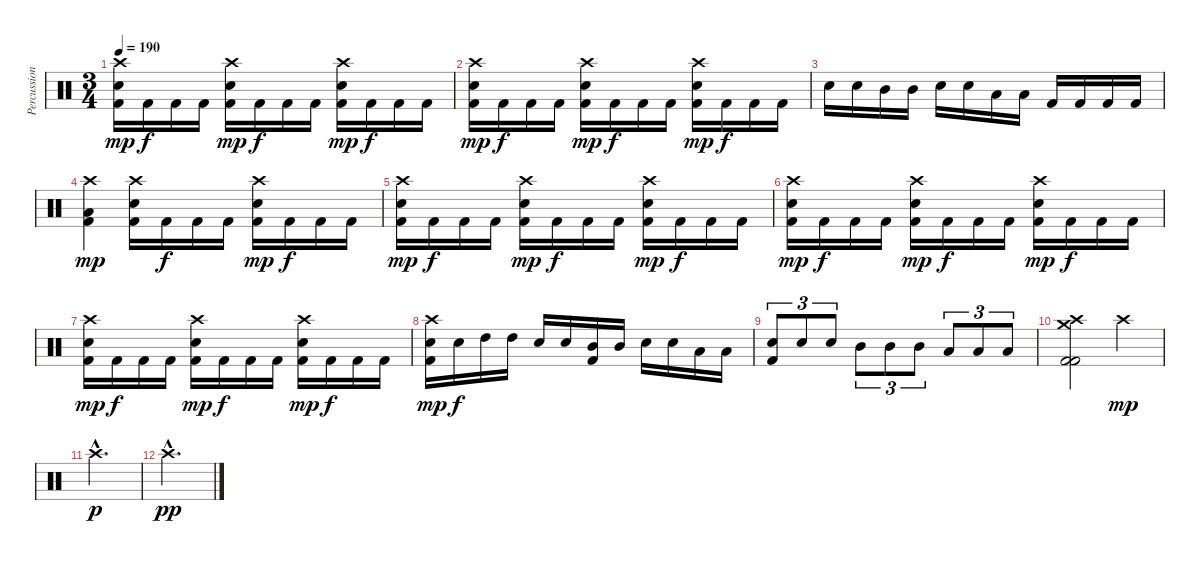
\track ("Percussion" "Percussion") {instrument percussion}
\staff {score}
\articulation defaults
\ts (3 4)
\tempo 190
\clef neutral
\ks c
("Crash high (hit)" "Electric Snare (hit)" "Kick (hit) 2").16{dy mp} "Kick (hit) 2".16{dy f} "Kick (hit) 2".16 "Kick (hit) 2".16 ("Crash high (hit)" "Electric Snare (hit)" "Kick (hit) 2").16{dy mp} "Kick (hit) 2".16{dy f} "Kick (hit) 2".16 "Kick (hit) 2".16 ("Crash high (hit)" "Electric Snare (hit)" "Kick (hit) 2").16{dy mp} "Kick (hit) 2".16{dy f} "Kick (hit) 2".16 "Kick (hit) 2".16 |
("Crash high (hit)" "Electric Snare (hit)" "Kick (hit) 2").16{dy mp} "Kick (hit) 2".16{dy f} "Kick (hit) 2".16 "Kick (hit) 2".16 ("Crash high (hit)" "Electric Snare (hit)" "Kick (hit) 2").16{dy mp} "Kick (hit) 2".16{dy f} "Kick (hit) 2".16 "Kick (hit) 2".16 ("Crash high (hit)" "Electric Snare (hit)" "Kick (hit) 2").16{dy mp} "Kick (hit) 2".16{dy f} "Kick (hit) 2".16 "Kick (hit) 2".16 |
"Electric Snare (hit)".16 "Electric Snare (hit)".16 "Mid Tom (hit)".16 "Mid Tom (hit)".16 "Electric Snare (hit)".16 "Electric Snare (hit)".16 "Low Tom (hit)".16 "Low Tom (hit)".16 "Kick (hit) 2".16 "Kick (hit) 2".16 "Kick (hit) 2".16 "Kick (hit) 2".16 |
("Crash high (hit)" "Low Floor Tom (hit)" "Kick (hit) 2").4{dy mp} ("Crash high (hit)" "Electric Snare (hit)" "Kick (hit) 2").16 "Kick (hit) 2".16{dy f} "Kick (hit) 2".16 "Kick (hit) 2".16 ("Crash high (hit)" "Electric Snare (hit)" "Kick (hit) 2").16{dy mp} "Kick (hit) 2".16{dy f} "Kick (hit) 2".16 "Kick (hit) 2".16 |
("Crash high (hit)" "Electric Snare (hit)" "Kick (hit) 2").16{dy mp} "Kick (hit) 2".16{dy f} "Kick (hit) 2".16 "Kick (hit) 2".16 ("Crash high (hit)" "Electric Snare (hit)" "Kick (hit) 2").16{dy mp} "Kick (hit) 2".16{dy f} "Kick (hit) 2".16 "Kick (hit) 2".16 ("Crash high (hit)" "Electric Snare (hit)" "Kick (hit) 2").16{dy mp} "Kick (hit) 2".16{dy f} "Kick (hit) 2".16 "Kick (hit) 2".16 |
("Crash high (hit)" "Electric Snare (hit)" "Kick (hit) 2").16{dy mp} "Kick (hit) 2".16{dy f} "Kick (hit) 2".16 "Kick (hit) 2".16 ("Crash high (hit)" "Electric Snare (hit)" "Kick (hit) 2").16{dy mp} "Kick (hit) 2".16{dy f} "Kick (hit) 2".16 "Kick (hit) 2".16 ("Crash high (hit)" "Electric Snare (hit)" "Kick (hit) 2").16{dy mp} "Kick (hit) 2".16{dy f} "Kick (hit) 2".16 "Kick (hit) 2".16 |
("Crash high (hit)" "Electric Snare (hit)" "Kick (hit) 2").16{dy mp} "Kick (hit) 2".16{dy f} "Kick (hit) 2".16 "Kick (hit) 2".16 ("Crash high (hit)" "Electric Snare (hit)" "Kick (hit) 2").16{dy mp} "Kick (hit) 2".16{dy f} "Kick (hit) 2".16 "Kick (hit) 2".16 ("Crash high (hit)" "Electric Snare (hit)" "Kick (hit) 2").16{dy mp} "Kick (hit) 2".16{dy f} "Kick (hit) 2".16 "Kick (hit) 2".16 |
("Crash high (hit)" "Electric Snare (hit)" "Kick (hit) 2").16{dy mp} "Electric Snare (hit)".16{dy f} "High Tom (hit)".16 "High Tom (hit)".16 "Electric Snare (hit)".16 "Electric Snare (hit)".16 ("Mid Tom (hit)" "Kick (hit) 2").16 "Mid Tom (hit)".16 "Electric Snare (hit)".16 "Electric Snare (hit)".16 "Low Tom (hit)".16 "Low Tom (hit)".16 |
("Electric Snare (hit)" "Kick (hit) 2").8{tu (3 2)} "Electric Snare (hit)".8{tu (3 2)} "Electric Snare (hit)".8{tu (3 2)} "Mid Tom (hit)".8{tu (3 2)} "Mid Tom (hit)".8{tu (3 2)} "Mid Tom (hit)".8{tu (3 2)} "Low Tom (hit)".8{tu (3 2)} "Low Tom (hit)".8{tu (3 2)} "Low Tom (hit)".8{tu (3 2)} |
("Crash high (hit)" "Crash medium (hit)" "Kick (hit) 2" "Kick (hit) 2").2 "Crash high (hit)".4{dy mp} |
"Crash high (hit)"{hac}.2{d dy p} |
"Crash high (hit)"{hac}.2{d dy pp}
